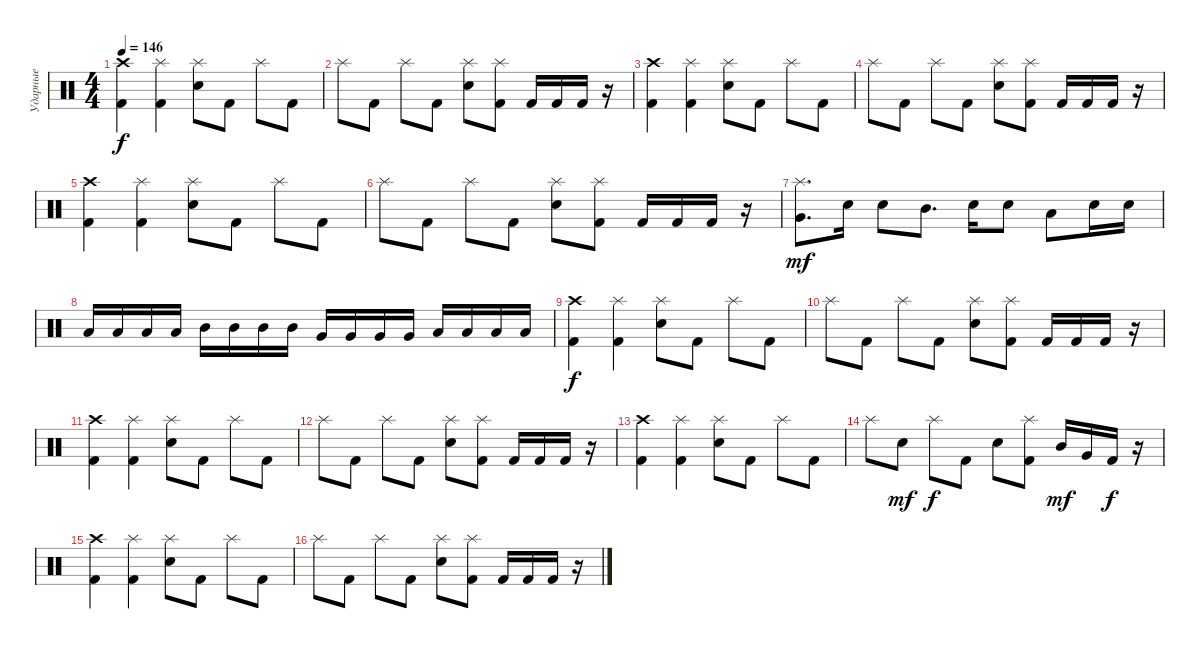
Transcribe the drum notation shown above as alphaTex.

\track ("Ударные" "Ударные") {instrument percussion}
\staff {score}
\articulation defaults
\ts (4 4)
\tempo 146
\clef neutral
\ks c
("Crash high (hit)" "Kick (hit) 2").4{dy f} ("Splash (hit)" "Kick (hit) 2").4 ("Splash (hit)" "Snare (hit) 2").8 "Kick (hit) 2".8 "Splash (hit)".8 "Kick (hit) 2".8 |
"Splash (hit)".8 "Kick (hit) 2".8 "Splash (hit)".8 "Kick (hit) 2".8 ("Splash (hit)" "Snare (hit) 2").8 ("Splash (hit)" "Kick (hit) 2").8 "Kick (hit) 2".16 "Kick (hit) 2".16 "Kick (hit) 2".16 r.16 |
("Crash high (hit)" "Kick (hit) 2").4 ("Splash (hit)" "Kick (hit) 2").4 ("Splash (hit)" "Snare (hit) 2").8 "Kick (hit) 2".8 "Splash (hit)".8 "Kick (hit) 2".8 |
"Splash (hit)".8 "Kick (hit) 2".8 "Splash (hit)".8 "Kick (hit) 2".8 ("Splash (hit)" "Snare (hit) 2").8 ("Splash (hit)" "Kick (hit) 2").8 "Kick (hit) 2".16 "Kick (hit) 2".16 "Kick (hit) 2".16 r.16 |
("Crash high (hit)" "Kick (hit) 2").4 ("Splash (hit)" "Kick (hit) 2").4 ("Splash (hit)" "Snare (hit) 2").8 "Kick (hit) 2".8 "Splash (hit)".8 "Kick (hit) 2".8 |
"Splash (hit)".8 "Kick (hit) 2".8 "Splash (hit)".8 "Kick (hit) 2".8 ("Splash (hit)" "Snare (hit) 2").8 ("Splash (hit)" "Kick (hit) 2").8 "Kick (hit) 2".16 "Kick (hit) 2".16 "Kick (hit) 2".16 r.16 |
("Splash (hit)" "Very Low Tom (hit)").8{d dy mf} "Snare (hit) 2".16 "Snare (hit) 2".8 "Mid Tom (hit)".8{d} "Snare (hit) 2".16 "Snare (hit) 2".8 "Low Tom (hit)".8 "Snare (hit) 2".16 "Snare (hit) 2".16 |
"Low Tom (hit)".16 "Low Tom (hit)".16 "Low Tom (hit)".16 "Low Tom (hit)".16 "Mid Tom (hit)".16 "Mid Tom (hit)".16 "Mid Tom (hit)".16 "Mid Tom (hit)".16 "Very Low Tom (hit)".16 "Very Low Tom (hit)".16 "Very Low Tom (hit)".16 "Very Low Tom (hit)".16 "Low Floor Tom (hit)".16 "Low Floor Tom (hit)".16 "Low Floor Tom (hit)".16 "Low Floor Tom (hit)".16 |
("Crash high (hit)" "Kick (hit) 2").4{dy f} ("Splash (hit)" "Kick (hit) 2").4 ("Splash (hit)" "Snare (hit) 2").8 "Kick (hit) 2".8 "Splash (hit)".8 "Kick (hit) 2".8 |
"Splash (hit)".8 "Kick (hit) 2".8 "Splash (hit)".8 "Kick (hit) 2".8 ("Splash (hit)" "Snare (hit) 2").8 ("Splash (hit)" "Kick (hit) 2").8 "Kick (hit) 2".16 "Kick (hit) 2".16 "Kick (hit) 2".16 r.16 |
("Crash high (hit)" "Kick (hit) 2").4 ("Splash (hit)" "Kick (hit) 2").4 ("Splash (hit)" "Snare (hit) 2").8 "Kick (hit) 2".8 "Splash (hit)".8 "Kick (hit) 2".8 |
"Splash (hit)".8 "Kick (hit) 2".8 "Splash (hit)".8 "Kick (hit) 2".8 ("Splash (hit)" "Snare (hit) 2").8 ("Splash (hit)" "Kick (hit) 2").8 "Kick (hit) 2".16 "Kick (hit) 2".16 "Kick (hit) 2".16 r.16 |
("Crash high (hit)" "Kick (hit) 2").4 ("Splash (hit)" "Kick (hit) 2").4 ("Splash (hit)" "Snare (hit) 2").8 "Kick (hit) 2".8 "Splash (hit)".8 "Kick (hit) 2".8 |
"Splash (hit)".8 "Snare (hit) 2".8{dy mf} "Splash (hit)".8{dy f} "Kick (hit) 2".8 "Snare (hit) 2".8 ("Splash (hit)" "Kick (hit) 2").8 "Mid Tom (hit)".16{dy mf} "Very Low Tom (hit)".16 "Kick (hit) 2".16{dy f} r.16 |
("Crash high (hit)" "Kick (hit) 2").4 ("Splash (hit)" "Kick (hit) 2").4 ("Splash (hit)" "Snare (hit) 2").8 "Kick (hit) 2".8 "Splash (hit)".8 "Kick (hit) 2".8 |
"Splash (hit)".8 "Kick (hit) 2".8 "Splash (hit)".8 "Kick (hit) 2".8 ("Splash (hit)" "Snare (hit) 2").8 ("Splash (hit)" "Kick (hit) 2").8 "Kick (hit) 2".16 "Kick (hit) 2".16 "Kick (hit) 2".16 r.16
